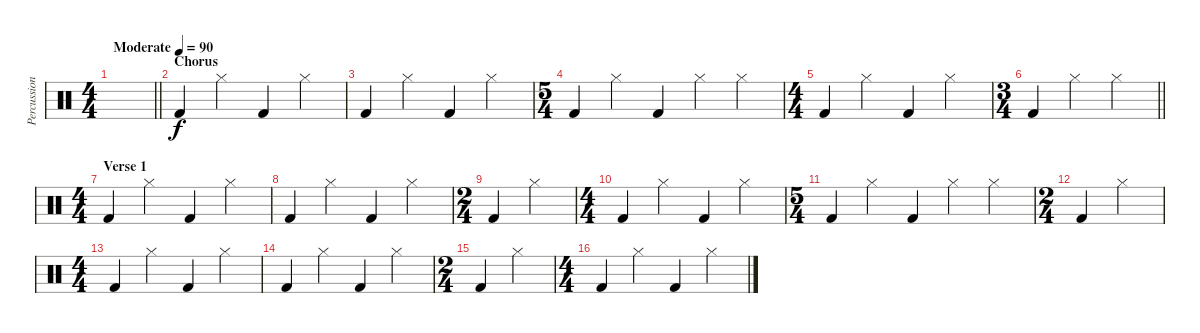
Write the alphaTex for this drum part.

\track ("Percussion" "Percussion") {instrument percussion}
\staff {score}
\articulation defaults
\ts (4 4)
\tempo (90 "Moderate")
\clef neutral
\barLineRight lightlight
\ks c
|
\section ("" "Chorus")
"Kick (hit) 2".4{volume 3} "Hi-Hat (closed)".4{volume 13} "Kick (hit) 2".4{volume 3} "Hi-Hat (closed)".4{volume 13} |
"Kick (hit) 2".4{volume 3} "Hi-Hat (closed)".4{volume 13} "Kick (hit) 2".4{volume 3} "Hi-Hat (closed)".4{volume 13} |
\ts (5 4)
"Kick (hit) 2".4{volume 3} "Hi-Hat (closed)".4{volume 13} "Kick (hit) 2".4{volume 3} "Hi-Hat (closed)".4{volume 13} "Hi-Hat (closed)".4 |
\ts (4 4)
"Kick (hit) 2".4{volume 3} "Hi-Hat (closed)".4{volume 13} "Kick (hit) 2".4{volume 3} "Hi-Hat (closed)".4{volume 13} |
\ts (3 4)
\barLineRight lightlight "Kick (hit) 2".4{volume 3} "Hi-Hat (closed)".4{volume 13} "Hi-Hat (closed)".4
|
\ts (4 4)
\section ("" "Verse 1")
"Kick (hit) 2".4{volume 3} "Hi-Hat (closed)".4{volume 13} "Kick (hit) 2".4{volume 3} "Hi-Hat (closed)".4{volume 13} |
"Kick (hit) 2".4{volume 3} "Hi-Hat (closed)".4{volume 13} "Kick (hit) 2".4{volume 3} "Hi-Hat (closed)".4{volume 13} |
\ts (2 4)
"Kick (hit) 2".4{volume 3} "Hi-Hat (closed)".4{volume 13} |
\ts (4 4)
"Kick (hit) 2".4{volume 3} "Hi-Hat (closed)".4{volume 13} "Kick (hit) 2".4{volume 3} "Hi-Hat (closed)".4{volume 13} |
\ts (5 4)
"Kick (hit) 2".4{volume 3} "Hi-Hat (closed)".4{volume 13} "Kick (hit) 2".4{volume 3} "Hi-Hat (closed)".4{volume 13} "Hi-Hat (closed)".4 |
\ts (2 4)
"Kick (hit) 2".4{volume 3} "Hi-Hat (closed)".4{volume 13} |
\ts (4 4)
"Kick (hit) 2".4{volume 3} "Hi-Hat (closed)".4{volume 13} "Kick (hit) 2".4{volume 3} "Hi-Hat (closed)".4{volume 13} |
"Kick (hit) 2".4{volume 3} "Hi-Hat (closed)".4{volume 13} "Kick (hit) 2".4{volume 3} "Hi-Hat (closed)".4{volume 13} |
\ts (2 4)
"Kick (hit) 2".4{volume 3} "Hi-Hat (closed)".4{volume 13} |
\ts (4 4)
"Kick (hit) 2".4{volume 3} "Hi-Hat (closed)".4{volume 13} "Kick (hit) 2".4{volume 3} "Hi-Hat (closed)".4{volume 13}
